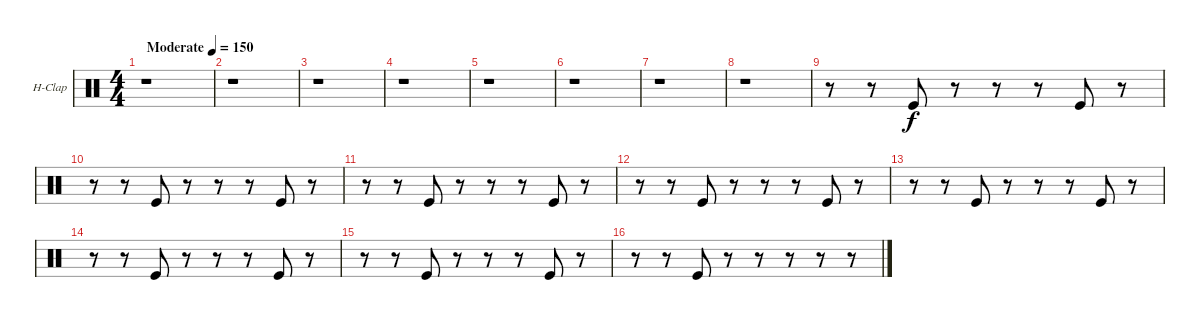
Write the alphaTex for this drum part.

\bracketExtendMode groupsimilarinstruments
\firstSystemTrackNameOrientation horizontal
\otherSystemsTrackNameOrientation horizontal
\track ("Hand Clap" "H-Clap") {instrument percussion}
\staff {score}
\articulation defaults
\ts (4 4)
\beaming (8 2 2 2 2)
\tempo (150 "Moderate")
\clef neutral
\ks c
r.1{dy f} |
r.1 |
r.1 |
r.1 |
r.1 |
r.1 |
r.1 |
r.1 |
r.8 r.8 "Kick (hit)".8 r.8 r.8 r.8 "Kick (hit)".8 r.8 |
r.8 r.8 "Kick (hit)".8 r.8 r.8 r.8 "Kick (hit)".8 r.8 |
r.8 r.8 "Kick (hit)".8 r.8 r.8 r.8 "Kick (hit)".8 r.8 |
r.8 r.8 "Kick (hit)".8 r.8 r.8 r.8 "Kick (hit)".8 r.8 |
r.8 r.8 "Kick (hit)".8 r.8 r.8 r.8 "Kick (hit)".8 r.8 |
r.8 r.8 "Kick (hit)".8 r.8 r.8 r.8 "Kick (hit)".8 r.8 |
r.8 r.8 "Kick (hit)".8 r.8 r.8 r.8 "Kick (hit)".8 r.8 |
r.8 r.8 "Kick (hit)".8 r.8 r.8 r.8 r.8 r.8
